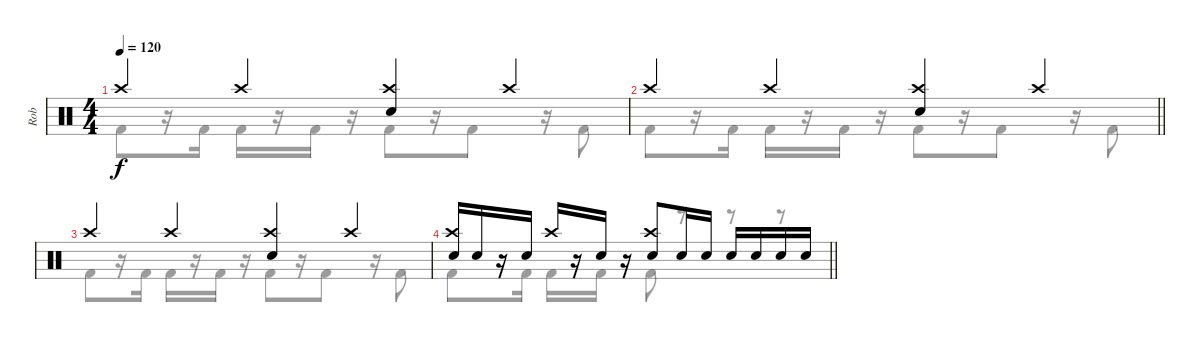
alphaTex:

\track ("Rob" "Rob") {instrument percussion}
\staff {score}
\articulation defaults
\voice
\ts (4 4)
\tempo 120
\clef neutral
\ks c "Crash high (hit)".4{dy f} "Crash high (hit)".4
("Crash high (hit)" "Snare (hit) 2").4 "Crash high (hit)".4 |
\barLineRight lightlight "Crash high (hit)".4 "Crash high (hit)".4
("Crash high (hit)" "Snare (hit) 2").4 "Crash high (hit)".4 |
"Crash high (hit)".4 "Crash high (hit)".4 ("Crash high (hit)" "Snare (hit) 2").4 "Crash high (hit)".4 |
\barLineRight lightlight
("Crash high (hit)" "Snare (hit) 2").16 "Snare (hit) 2".16 r.16 "Snare (hit) 2".16 "Crash high (hit)".16 r.16 "Snare (hit) 2".16 r.16 ("Crash high (hit)" "Snare (hit) 2").8 "Snare (hit) 2".16 "Snare (hit) 2".16 "Snare (hit) 2".16 "Snare (hit) 2".16 "Snare (hit) 2".16 "Snare (hit) 2".16
\voice
\clef neutral
\ottava regular
\simile none
\ks c "Kick (hit) 2".8{dy f}
r.16 "Kick (hit) 2".16 "Kick (hit) 2".16 r.16 "Kick (hit) 2".16 r.16 "Kick (hit) 2".8 r.16 "Kick (hit) 2".8 r.16 "Kick (hit) 2".8 |
\barLineRight lightlight "Kick (hit) 2".8
r.16 "Kick (hit) 2".16 "Kick (hit) 2".16 r.16 "Kick (hit) 2".16 r.16 "Kick (hit) 2".8 r.16 "Kick (hit) 2".8 r.16 "Kick (hit) 2".8 |
"Kick (hit) 2".8 r.16 "Kick (hit) 2".16 "Kick (hit) 2".16 r.16 "Kick (hit) 2".16 r.16 "Kick (hit) 2".8 r.16 "Kick (hit) 2".8 r.16 "Kick (hit) 2".8 |
\barLineRight lightlight "Kick (hit) 2".8
r.16 "Kick (hit) 2".16 "Kick (hit) 2".16 r.16 "Kick (hit) 2".16 r.16 "Kick (hit) 2".8 r.8 r.8 r.8
